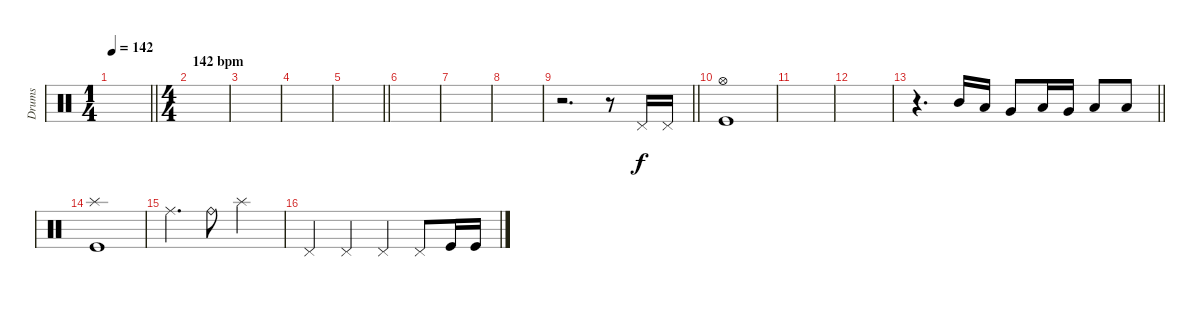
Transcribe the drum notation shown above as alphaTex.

\track ("Drums" "Drums") {instrument percussion}
\staff
\articulation defaults
\ts (1 4)
\tempo 142
\clef neutral
\barLineRight lightlight
\ks c
|
\ts (4 4)
\section ("" "142 bpm")
|
|
|
\barLineRight lightlight
|
|
|
|
\barLineRight lightlight
r.2{d} r.8 "Pedal Hi-Hat (hit)".16 "Pedal Hi-Hat (hit)".16 |
("Hi-Hat (open)" "Kick (hit)").1 |
|
|
\barLineRight lightlight
r.4{d} "Mid Tom (hit)".16 "Low Tom (hit)".16 "Very Low Tom (hit)".8 "Low Tom (hit)".16 "Very Low Tom (hit)".16 "Low Floor Tom (hit)".8 "Low Floor Tom (hit)".8 |
("Splash (hit)" "Kick (hit)").1 |
"Ride (middle)".4{d} "Ride (bell)".8 "Splash (hit)".2 |
"Pedal Hi-Hat (hit)".4 "Pedal Hi-Hat (hit)".4 "Pedal Hi-Hat (hit)".4 "Pedal Hi-Hat (hit)".8 "Kick (hit)".16 "Kick (hit)".16
